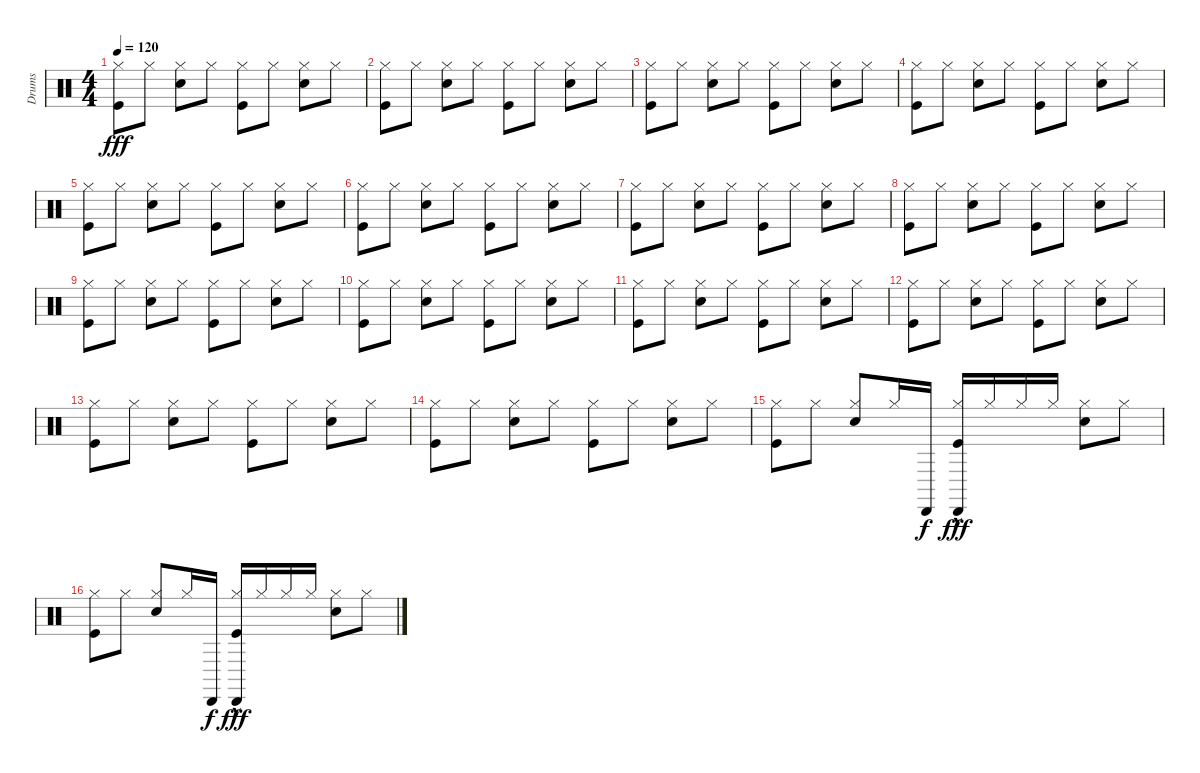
\track ("Drums" "Drums") {instrument percussion}
\staff {score}
\articulation defaults
\ts (4 4)
\tempo 120
\clef neutral
\ks c
("Kick (hit)" "Hi-Hat (closed)").8{dy fff} "Hi-Hat (closed)".8 ("Snare (hit) 2" "Hi-Hat (closed)").8 "Hi-Hat (closed)".8 ("Kick (hit)" "Hi-Hat (closed)").8 "Hi-Hat (closed)".8 ("Snare (hit) 2" "Hi-Hat (closed)").8 "Hi-Hat (closed)".8 |
("Kick (hit)" "Hi-Hat (closed)").8 "Hi-Hat (closed)".8 ("Snare (hit) 2" "Hi-Hat (closed)").8 "Hi-Hat (closed)".8 ("Kick (hit)" "Hi-Hat (closed)").8 "Hi-Hat (closed)".8 ("Snare (hit) 2" "Hi-Hat (closed)").8 "Hi-Hat (closed)".8 |
("Kick (hit)" "Hi-Hat (closed)").8 "Hi-Hat (closed)".8 ("Snare (hit) 2" "Hi-Hat (closed)").8 "Hi-Hat (closed)".8 ("Kick (hit)" "Hi-Hat (closed)").8 "Hi-Hat (closed)".8 ("Snare (hit) 2" "Hi-Hat (closed)").8 "Hi-Hat (closed)".8 |
("Kick (hit)" "Hi-Hat (closed)").8 "Hi-Hat (closed)".8 ("Snare (hit) 2" "Hi-Hat (closed)").8 "Hi-Hat (closed)".8 ("Kick (hit)" "Hi-Hat (closed)").8 "Hi-Hat (closed)".8 ("Snare (hit) 2" "Hi-Hat (closed)").8 "Hi-Hat (closed)".8 |
("Kick (hit)" "Hi-Hat (closed)").8 "Hi-Hat (closed)".8 ("Snare (hit) 2" "Hi-Hat (closed)").8 "Hi-Hat (closed)".8 ("Kick (hit)" "Hi-Hat (closed)").8 "Hi-Hat (closed)".8 ("Snare (hit) 2" "Hi-Hat (closed)").8 "Hi-Hat (closed)".8 |
("Kick (hit)" "Hi-Hat (closed)").8 "Hi-Hat (closed)".8 ("Snare (hit) 2" "Hi-Hat (closed)").8 "Hi-Hat (closed)".8 ("Kick (hit)" "Hi-Hat (closed)").8 "Hi-Hat (closed)".8 ("Snare (hit) 2" "Hi-Hat (closed)").8 "Hi-Hat (closed)".8 |
("Kick (hit)" "Hi-Hat (closed)").8 "Hi-Hat (closed)".8 ("Snare (hit) 2" "Hi-Hat (closed)").8 "Hi-Hat (closed)".8 ("Kick (hit)" "Hi-Hat (closed)").8 "Hi-Hat (closed)".8 ("Snare (hit) 2" "Hi-Hat (closed)").8 "Hi-Hat (closed)".8 |
("Kick (hit)" "Hi-Hat (closed)").8 "Hi-Hat (closed)".8 ("Snare (hit) 2" "Hi-Hat (closed)").8 "Hi-Hat (closed)".8 ("Kick (hit)" "Hi-Hat (closed)").8 "Hi-Hat (closed)".8 ("Snare (hit) 2" "Hi-Hat (closed)").8 "Hi-Hat (closed)".8 |
("Kick (hit)" "Hi-Hat (closed)").8 "Hi-Hat (closed)".8 ("Snare (hit) 2" "Hi-Hat (closed)").8 "Hi-Hat (closed)".8 ("Kick (hit)" "Hi-Hat (closed)").8 "Hi-Hat (closed)".8 ("Snare (hit) 2" "Hi-Hat (closed)").8 "Hi-Hat (closed)".8 |
("Kick (hit)" "Hi-Hat (closed)").8 "Hi-Hat (closed)".8 ("Snare (hit) 2" "Hi-Hat (closed)").8 "Hi-Hat (closed)".8 ("Kick (hit)" "Hi-Hat (closed)").8 "Hi-Hat (closed)".8 ("Snare (hit) 2" "Hi-Hat (closed)").8 "Hi-Hat (closed)".8 |
("Kick (hit)" "Hi-Hat (closed)").8 "Hi-Hat (closed)".8 ("Snare (hit) 2" "Hi-Hat (closed)").8 "Hi-Hat (closed)".8 ("Kick (hit)" "Hi-Hat (closed)").8 "Hi-Hat (closed)".8 ("Snare (hit) 2" "Hi-Hat (closed)").8 "Hi-Hat (closed)".8 |
("Kick (hit)" "Hi-Hat (closed)").8 "Hi-Hat (closed)".8 ("Snare (hit) 2" "Hi-Hat (closed)").8 "Hi-Hat (closed)".8 ("Kick (hit)" "Hi-Hat (closed)").8 "Hi-Hat (closed)".8 ("Snare (hit) 2" "Hi-Hat (closed)").8 "Hi-Hat (closed)".8 |
("Kick (hit)" "Hi-Hat (closed)").8 "Hi-Hat (closed)".8 ("Snare (hit) 2" "Hi-Hat (closed)").8 "Hi-Hat (closed)".8 ("Kick (hit)" "Hi-Hat (closed)").8 "Hi-Hat (closed)".8 ("Snare (hit) 2" "Hi-Hat (closed)").8 "Hi-Hat (closed)".8 |
("Kick (hit)" "Hi-Hat (closed)").8 "Hi-Hat (closed)".8 ("Snare (hit) 2" "Hi-Hat (closed)").8 "Hi-Hat (closed)".8 ("Kick (hit)" "Hi-Hat (closed)").8 "Hi-Hat (closed)".8 ("Snare (hit) 2" "Hi-Hat (closed)").8 "Hi-Hat (closed)".8 |
("Kick (hit)" "Hi-Hat (closed)").8 "Hi-Hat (closed)".8 ("Snare (hit) 2" "Hi-Hat (closed)").8 "Hi-Hat (closed)".16 "Cabasa (hit)".16{dy f} ("Cabasa (hit)"{hac} "Kick (hit)" "Hi-Hat (closed)").16{dy fff} "Hi-Hat (closed)".16 "Hi-Hat (closed)".16 "Hi-Hat (closed)".16 ("Snare (hit) 2" "Hi-Hat (closed)").8 "Hi-Hat (closed)".8 |
("Kick (hit)" "Hi-Hat (closed)").8 "Hi-Hat (closed)".8 ("Snare (hit) 2" "Hi-Hat (closed)").8 "Hi-Hat (closed)".16 "Cabasa (hit)".16{dy f} ("Cabasa (hit)"{hac} "Kick (hit)" "Hi-Hat (closed)").16{dy fff} "Hi-Hat (closed)".16 "Hi-Hat (closed)".16 "Hi-Hat (closed)".16 ("Snare (hit) 2" "Hi-Hat (closed)").8 "Hi-Hat (closed)".8
